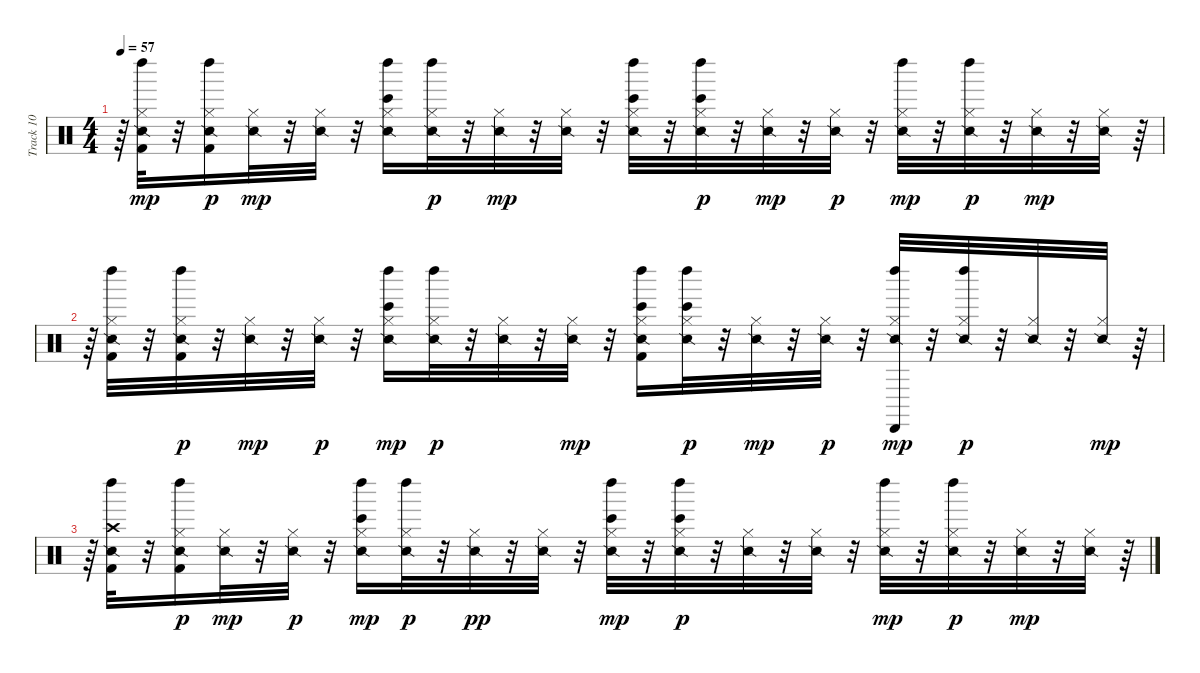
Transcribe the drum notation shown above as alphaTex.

\track ("Track 10" "Track 10") {instrument percussion}
\staff {score}
\articulation defaults
\ts (4 4)
\tempo 57
\clef neutral
\ks c
r.64{dy mp} ("Snare (side stick) 2" "Kick (hit) 2" "Hi-Hat (closed)" "Left Maraca (hit)").32 r.32 ("Snare (side stick) 2" "Kick (hit) 2" "Hi-Hat (closed)" "Left Maraca (hit)").16{dy p} ("Snare (side stick) 2" "Hi-Hat (closed)").32{dy mp} r.32 ("Snare (side stick) 2" "Hi-Hat (closed)").32 r.32 ("Bongo High (hit)" "Snare (side stick) 2" "Hi-Hat (closed)" "Left Maraca (hit)").16 ("Snare (side stick) 2" "Hi-Hat (closed)" "Left Maraca (hit)").32{dy p} r.32 ("Snare (side stick) 2" "Hi-Hat (closed)").32{dy mp} r.32 ("Snare (side stick) 2" "Hi-Hat (closed)").32 r.32 ("Bongo High (hit)" "Snare (side stick) 2" "Hi-Hat (closed)" "Left Maraca (hit)").32 r.32 ("Bongo High (hit)" "Snare (side stick) 2" "Hi-Hat (closed)" "Left Maraca (hit)").32{dy p} r.32 ("Snare (side stick) 2" "Hi-Hat (closed)").32{dy mp} r.32 ("Snare (side stick) 2" "Hi-Hat (closed)").32{dy p} r.32 ("Snare (side stick) 2" "Hi-Hat (closed)" "Left Maraca (hit)").32{dy mp} r.32 ("Snare (side stick) 2" "Hi-Hat (closed)" "Left Maraca (hit)").32{dy p} r.32 ("Snare (side stick) 2" "Hi-Hat (closed)").32{dy mp} r.32 ("Snare (side stick) 2" "Hi-Hat (closed)").32 r.64 |
r.64 ("Snare (side stick) 2" "Kick (hit) 2" "Hi-Hat (closed)" "Left Maraca (hit)").32 r.32 ("Snare (side stick) 2" "Kick (hit) 2" "Hi-Hat (closed)" "Left Maraca (hit)").32{dy p} r.32 ("Snare (side stick) 2" "Hi-Hat (closed)").32{dy mp} r.32 ("Snare (side stick) 2" "Hi-Hat (closed)").32{dy p} r.32 ("Bongo High (hit)" "Snare (side stick) 2" "Hi-Hat (closed)" "Left Maraca (hit)").16{dy mp} ("Snare (side stick) 2" "Hi-Hat (closed)" "Left Maraca (hit)").32{dy p} r.32 ("Snare (side stick) 2" "Hi-Hat (closed)").32 r.32 ("Snare (side stick) 2" "Hi-Hat (closed)").32{dy mp} r.32 ("Bongo High (hit)" "Snare (side stick) 2" "Kick (hit) 2" "Hi-Hat (closed)" "Left Maraca (hit)").16 ("Bongo High (hit)" "Snare (side stick) 2" "Hi-Hat (closed)" "Left Maraca (hit)").32{dy p} r.32 ("Snare (side stick) 2" "Hi-Hat (closed)").32{dy mp} r.32 ("Snare (side stick) 2" "Hi-Hat (closed)").32{dy p} r.32 ("Snare (side stick) 2" "Hi-Hat (closed)" "Left Maraca (hit)" "Cabasa (hit)").32{dy mp} r.32 ("Snare (side stick) 2" "Hi-Hat (closed)" "Left Maraca (hit)").32{dy p} r.32 ("Snare (side stick) 2" "Hi-Hat (closed)").32 r.32 ("Snare (side stick) 2" "Hi-Hat (closed)").32{dy mp} r.64 |
r.64 ("Snare (side stick) 2" "Kick (hit) 2" "Crash high (hit)" "Left Maraca (hit)").32 r.32 ("Snare (side stick) 2" "Kick (hit) 2" "Hi-Hat (closed)" "Left Maraca (hit)").16{dy p} ("Snare (side stick) 2" "Hi-Hat (closed)").32{dy mp} r.32 ("Snare (side stick) 2" "Hi-Hat (closed)").32{dy p} r.32 ("Bongo High (hit)" "Snare (side stick) 2" "Hi-Hat (closed)" "Left Maraca (hit)").16{dy mp} ("Snare (side stick) 2" "Hi-Hat (closed)" "Left Maraca (hit)").32{dy p} r.32 ("Snare (side stick) 2" "Hi-Hat (closed)").32{dy pp} r.32 ("Snare (side stick) 2" "Hi-Hat (closed)").32 r.32 ("Bongo High (hit)" "Snare (side stick) 2" "Hi-Hat (closed)" "Left Maraca (hit)").32{dy mp} r.32 ("Bongo High (hit)" "Snare (side stick) 2" "Hi-Hat (closed)" "Left Maraca (hit)").32{dy p} r.32 ("Snare (side stick) 2" "Hi-Hat (closed)").32 r.32 ("Snare (side stick) 2" "Hi-Hat (closed)").32 r.32 ("Snare (side stick) 2" "Hi-Hat (closed)" "Left Maraca (hit)").32{dy mp} r.32 ("Snare (side stick) 2" "Hi-Hat (closed)" "Left Maraca (hit)").32{dy p} r.32 ("Snare (side stick) 2" "Hi-Hat (closed)").32{dy mp} r.32 ("Snare (side stick) 2" "Hi-Hat (closed)").32 r.64
